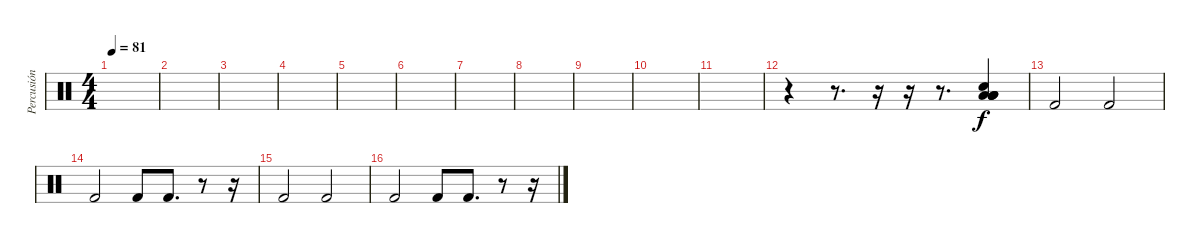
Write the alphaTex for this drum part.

\track ("Percusión" "Percusión") {instrument percussion}
\staff {score}
\articulation defaults
\ts (4 4)
\tempo 81
\clef neutral
\ks c
|
|
|
|
|
|
|
|
|
|
|
r.4 r.8{d} r.16 r.16 r.8{d} ("Low Tom (hit)" "Electric Snare (hit)" "Low Floor Tom (hit)" "Low Floor Tom (hit)" "Low Floor Tom (hit)").4 |
"Kick (hit) 2".2 "Kick (hit) 2".2 |
"Kick (hit) 2".2 "Kick (hit) 2".8 "Kick (hit) 2".8{d} r.8 r.16 |
"Kick (hit) 2".2 "Kick (hit) 2".2 |
"Kick (hit) 2".2 "Kick (hit) 2".8 "Kick (hit) 2".8{d} r.8 r.16
